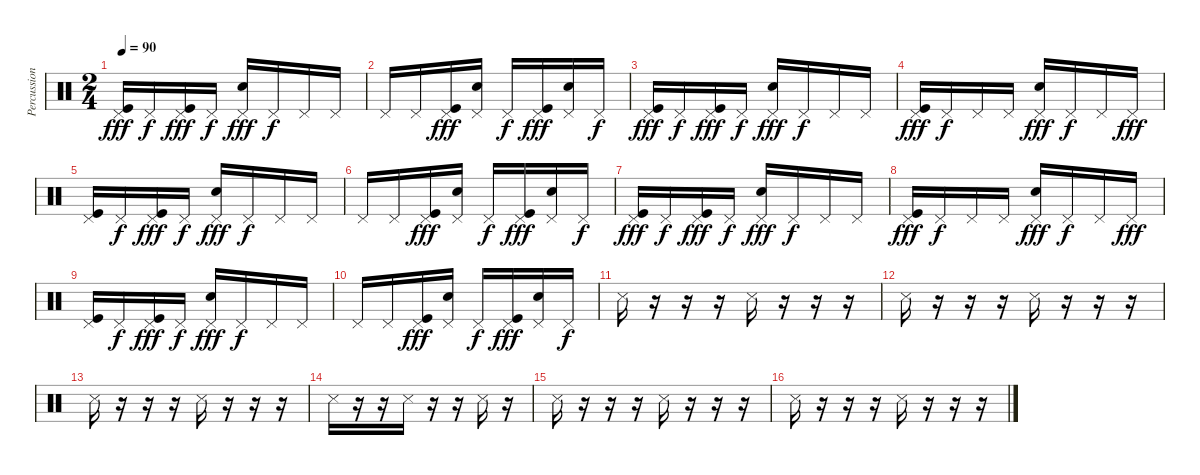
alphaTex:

\track ("Percussion" "Percussion") {instrument percussion}
\staff {score}
\articulation defaults
\ts (2 4)
\tempo 90
\clef neutral
\ks c
("Kick (hit)" "Pedal Hi-Hat (hit)").16{dy fff} "Pedal Hi-Hat (hit)".16{dy f} ("Kick (hit)" "Pedal Hi-Hat (hit)").16{dy fff} "Pedal Hi-Hat (hit)".16{dy f} ("Electric Snare (hit)" "Pedal Hi-Hat (hit)").16{dy fff} "Pedal Hi-Hat (hit)".16{dy f} "Pedal Hi-Hat (hit)".16 "Pedal Hi-Hat (hit)".16 |
"Pedal Hi-Hat (hit)".16 "Pedal Hi-Hat (hit)".16 ("Kick (hit)" "Pedal Hi-Hat (hit)").16{dy fff} ("Electric Snare (hit)" "Pedal Hi-Hat (hit)").16 "Pedal Hi-Hat (hit)".16{dy f} ("Kick (hit)" "Pedal Hi-Hat (hit)").16{dy fff} ("Electric Snare (hit)" "Pedal Hi-Hat (hit)").16 "Pedal Hi-Hat (hit)".16{dy f} |
("Kick (hit)" "Pedal Hi-Hat (hit)").16{dy fff} "Pedal Hi-Hat (hit)".16{dy f} ("Kick (hit)" "Pedal Hi-Hat (hit)").16{dy fff} "Pedal Hi-Hat (hit)".16{dy f} ("Electric Snare (hit)" "Pedal Hi-Hat (hit)").16{dy fff} "Pedal Hi-Hat (hit)".16{dy f} "Pedal Hi-Hat (hit)".16 "Pedal Hi-Hat (hit)".16 |
("Kick (hit)" "Pedal Hi-Hat (hit)").16{dy fff} "Pedal Hi-Hat (hit)".16{dy f} "Pedal Hi-Hat (hit)".16 "Pedal Hi-Hat (hit)".16 ("Electric Snare (hit)" "Pedal Hi-Hat (hit)").16{dy fff} "Pedal Hi-Hat (hit)".16{dy f} "Pedal Hi-Hat (hit)".16 "Pedal Hi-Hat (hit)".16{dy fff} |
("Kick (hit)" "Pedal Hi-Hat (hit)").16 "Pedal Hi-Hat (hit)".16{dy f} ("Kick (hit)" "Pedal Hi-Hat (hit)").16{dy fff} "Pedal Hi-Hat (hit)".16{dy f} ("Electric Snare (hit)" "Pedal Hi-Hat (hit)").16{dy fff} "Pedal Hi-Hat (hit)".16{dy f} "Pedal Hi-Hat (hit)".16 "Pedal Hi-Hat (hit)".16 |
"Pedal Hi-Hat (hit)".16 "Pedal Hi-Hat (hit)".16 ("Kick (hit)" "Pedal Hi-Hat (hit)").16{dy fff} ("Electric Snare (hit)" "Pedal Hi-Hat (hit)").16 "Pedal Hi-Hat (hit)".16{dy f} ("Kick (hit)" "Pedal Hi-Hat (hit)").16{dy fff} ("Electric Snare (hit)" "Pedal Hi-Hat (hit)").16 "Pedal Hi-Hat (hit)".16{dy f} |
("Kick (hit)" "Pedal Hi-Hat (hit)").16{dy fff} "Pedal Hi-Hat (hit)".16{dy f} ("Kick (hit)" "Pedal Hi-Hat (hit)").16{dy fff} "Pedal Hi-Hat (hit)".16{dy f} ("Electric Snare (hit)" "Pedal Hi-Hat (hit)").16{dy fff} "Pedal Hi-Hat (hit)".16{dy f} "Pedal Hi-Hat (hit)".16 "Pedal Hi-Hat (hit)".16 |
("Kick (hit)" "Pedal Hi-Hat (hit)").16{dy fff} "Pedal Hi-Hat (hit)".16{dy f} "Pedal Hi-Hat (hit)".16 "Pedal Hi-Hat (hit)".16 ("Electric Snare (hit)" "Pedal Hi-Hat (hit)").16{dy fff} "Pedal Hi-Hat (hit)".16{dy f} "Pedal Hi-Hat (hit)".16 "Pedal Hi-Hat (hit)".16{dy fff} |
("Kick (hit)" "Pedal Hi-Hat (hit)").16 "Pedal Hi-Hat (hit)".16{dy f} ("Kick (hit)" "Pedal Hi-Hat (hit)").16{dy fff} "Pedal Hi-Hat (hit)".16{dy f} ("Electric Snare (hit)" "Pedal Hi-Hat (hit)").16{dy fff} "Pedal Hi-Hat (hit)".16{dy f} "Pedal Hi-Hat (hit)".16 "Pedal Hi-Hat (hit)".16 |
"Pedal Hi-Hat (hit)".16 "Pedal Hi-Hat (hit)".16 ("Kick (hit)" "Pedal Hi-Hat (hit)").16{dy fff} ("Electric Snare (hit)" "Pedal Hi-Hat (hit)").16 "Pedal Hi-Hat (hit)".16{dy f} ("Kick (hit)" "Pedal Hi-Hat (hit)").16{dy fff} ("Electric Snare (hit)" "Pedal Hi-Hat (hit)").16 "Pedal Hi-Hat (hit)".16{dy f} |
"Snare (side stick) 3".16 r.16 r.16 r.16 "Snare (side stick) 3".16 r.16 r.16 r.16 |
"Snare (side stick) 3".16 r.16 r.16 r.16 "Snare (side stick) 3".16 r.16 r.16 r.16 |
"Snare (side stick) 3".16 r.16 r.16 r.16 "Snare (side stick) 3".16 r.16 r.16 r.16 |
"Snare (side stick) 3".16 r.16 r.16 "Snare (side stick) 3".16 r.16 r.16 "Snare (side stick) 3".16 r.16 |
"Snare (side stick) 3".16 r.16 r.16 r.16 "Snare (side stick) 3".16 r.16 r.16 r.16 |
"Snare (side stick) 3".16 r.16 r.16 r.16 "Snare (side stick) 3".16 r.16 r.16 r.16
